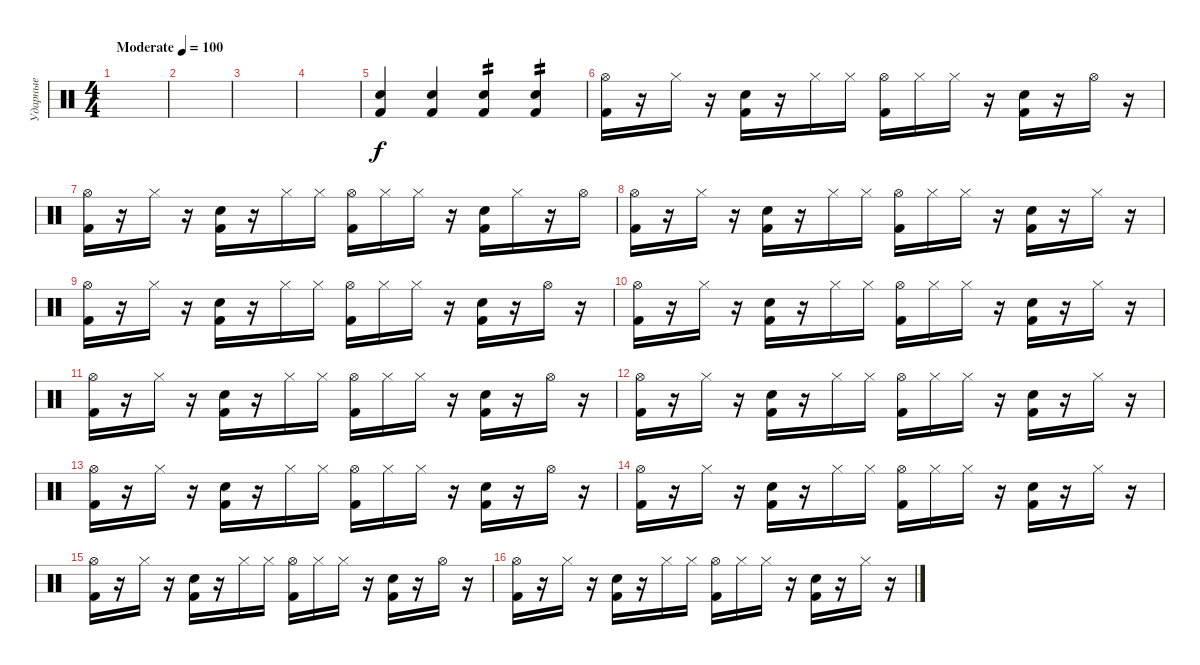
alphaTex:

\track ("Ударные" "Ударные") {instrument percussion}
\staff {score}
\articulation defaults
\ts (4 4)
\tempo (100 "Moderate")
\clef neutral
\ks c
|
|
|
|
("Kick (hit) 2" "Electric Snare (hit)").4 ("Kick (hit) 2" "Snare (hit) 2").4 ("Kick (hit) 2" "Electric Snare (hit)").4{tp 2} ("Kick (hit) 2" "Snare (hit) 2").4{tp 2} |
("Hi-Hat (open)" "Kick (hit) 2").16 r.16 "Hi-Hat (closed)".16 r.16 ("Snare (hit) 2" "Kick (hit) 2").16 r.16 "Hi-Hat (closed)".16 "Hi-Hat (closed)".16 ("Hi-Hat (open)" "Kick (hit) 2").16 "Hi-Hat (closed)".16 "Hi-Hat (closed)".16 r.16 ("Snare (hit) 2" "Kick (hit) 2").16 r.16 "Hi-Hat (open)".16 r.16 |
("Hi-Hat (open)" "Kick (hit) 2").16 r.16 "Hi-Hat (closed)".16 r.16 ("Snare (hit) 2" "Kick (hit) 2").16 r.16 "Hi-Hat (closed)".16 "Hi-Hat (closed)".16 ("Hi-Hat (open)" "Kick (hit) 2").16 "Hi-Hat (closed)".16 "Hi-Hat (closed)".16 r.16 ("Snare (hit) 2" "Kick (hit) 2").16 "Hi-Hat (closed)".16 r.16 "Hi-Hat (open)".16 |
("Hi-Hat (open)" "Kick (hit) 2").16 r.16 "Hi-Hat (closed)".16 r.16 ("Snare (hit) 2" "Kick (hit) 2").16 r.16 "Hi-Hat (closed)".16 "Hi-Hat (closed)".16 ("Hi-Hat (open)" "Kick (hit) 2").16 "Hi-Hat (closed)".16 "Hi-Hat (closed)".16 r.16 ("Snare (hit) 2" "Kick (hit) 2").16 r.16 "Hi-Hat (closed)".16 r.16 |
("Hi-Hat (open)" "Kick (hit) 2").16 r.16 "Hi-Hat (closed)".16 r.16 ("Snare (hit) 2" "Kick (hit) 2").16 r.16 "Hi-Hat (closed)".16 "Hi-Hat (closed)".16 ("Hi-Hat (open)" "Kick (hit) 2").16 "Hi-Hat (closed)".16 "Hi-Hat (closed)".16 r.16 ("Snare (hit) 2" "Kick (hit) 2").16 r.16 "Hi-Hat (open)".16 r.16 |
("Hi-Hat (open)" "Kick (hit) 2").16 r.16 "Hi-Hat (closed)".16 r.16 ("Snare (hit) 2" "Kick (hit) 2").16 r.16 "Hi-Hat (closed)".16 "Hi-Hat (closed)".16 ("Hi-Hat (open)" "Kick (hit) 2").16 "Hi-Hat (closed)".16 "Hi-Hat (closed)".16 r.16 ("Snare (hit) 2" "Kick (hit) 2").16 r.16 "Hi-Hat (closed)".16 r.16 |
("Hi-Hat (open)" "Kick (hit) 2").16 r.16 "Hi-Hat (closed)".16 r.16 ("Snare (hit) 2" "Kick (hit) 2").16 r.16 "Hi-Hat (closed)".16 "Hi-Hat (closed)".16 ("Hi-Hat (open)" "Kick (hit) 2").16 "Hi-Hat (closed)".16 "Hi-Hat (closed)".16 r.16 ("Snare (hit) 2" "Kick (hit) 2").16 r.16 "Hi-Hat (open)".16 r.16 |
("Hi-Hat (open)" "Kick (hit) 2").16 r.16 "Hi-Hat (closed)".16 r.16 ("Snare (hit) 2" "Kick (hit) 2").16 r.16 "Hi-Hat (closed)".16 "Hi-Hat (closed)".16 ("Hi-Hat (open)" "Kick (hit) 2").16 "Hi-Hat (closed)".16 "Hi-Hat (closed)".16 r.16 ("Snare (hit) 2" "Kick (hit) 2").16 r.16 "Hi-Hat (closed)".16 r.16 |
("Hi-Hat (open)" "Kick (hit) 2").16 r.16 "Hi-Hat (closed)".16 r.16 ("Snare (hit) 2" "Kick (hit) 2").16 r.16 "Hi-Hat (closed)".16 "Hi-Hat (closed)".16 ("Hi-Hat (open)" "Kick (hit) 2").16 "Hi-Hat (closed)".16 "Hi-Hat (closed)".16 r.16 ("Snare (hit) 2" "Kick (hit) 2").16 r.16 "Hi-Hat (open)".16 r.16 |
("Hi-Hat (open)" "Kick (hit) 2").16 r.16 "Hi-Hat (closed)".16 r.16 ("Snare (hit) 2" "Kick (hit) 2").16 r.16 "Hi-Hat (closed)".16 "Hi-Hat (closed)".16 ("Hi-Hat (open)" "Kick (hit) 2").16 "Hi-Hat (closed)".16 "Hi-Hat (closed)".16 r.16 ("Snare (hit) 2" "Kick (hit) 2").16 r.16 "Hi-Hat (closed)".16 r.16 |
("Hi-Hat (open)" "Kick (hit) 2").16 r.16 "Hi-Hat (closed)".16 r.16 ("Snare (hit) 2" "Kick (hit) 2").16 r.16 "Hi-Hat (closed)".16 "Hi-Hat (closed)".16 ("Hi-Hat (open)" "Kick (hit) 2").16 "Hi-Hat (closed)".16 "Hi-Hat (closed)".16 r.16 ("Snare (hit) 2" "Kick (hit) 2").16 r.16 "Hi-Hat (open)".16 r.16 |
("Hi-Hat (open)" "Kick (hit) 2").16 r.16 "Hi-Hat (closed)".16 r.16 ("Snare (hit) 2" "Kick (hit) 2").16 r.16 "Hi-Hat (closed)".16 "Hi-Hat (closed)".16 ("Hi-Hat (open)" "Kick (hit) 2").16 "Hi-Hat (closed)".16 "Hi-Hat (closed)".16 r.16 ("Snare (hit) 2" "Kick (hit) 2").16 r.16 "Hi-Hat (closed)".16 r.16
